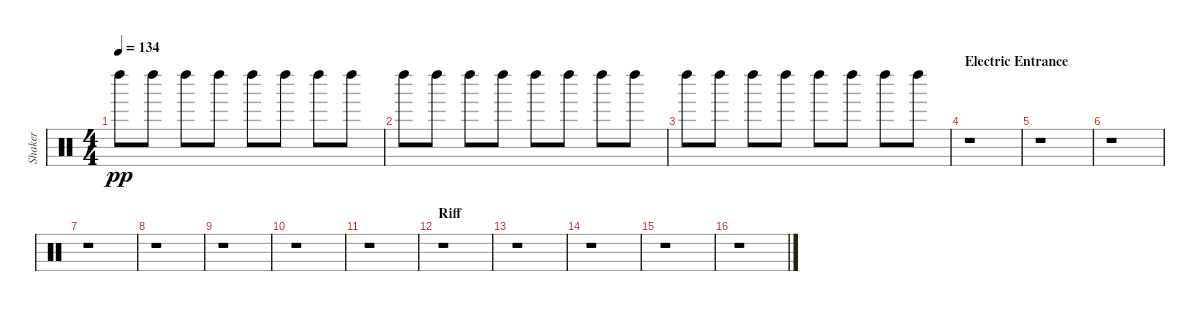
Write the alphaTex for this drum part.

\track ("Shaker" "Shaker") {instrument percussion}
\staff {score}
\articulation defaults
\ts (4 4)
\tempo 134
\clef neutral
\ks c "Left Maraca (hit)".8{dy pp} "Left Maraca (hit)".8 "Left Maraca (hit)".8 "Left Maraca (hit)".8 "Left Maraca (hit)".8 "Left Maraca (hit)".8 "Left Maraca (hit)".8 "Left Maraca (hit)".8
|
"Left Maraca (hit)".8 "Left Maraca (hit)".8 "Left Maraca (hit)".8 "Left Maraca (hit)".8 "Left Maraca (hit)".8 "Left Maraca (hit)".8 "Left Maraca (hit)".8 "Left Maraca (hit)".8 |
"Left Maraca (hit)".8 "Left Maraca (hit)".8 "Left Maraca (hit)".8 "Left Maraca (hit)".8 "Left Maraca (hit)".8 "Left Maraca (hit)".8 "Left Maraca (hit)".8 "Left Maraca (hit)".8 |
\section ("" "Electric Entrance")
r.1 |
r.1 |
r.1 |
r.1 |
r.1 |
r.1 |
r.1 |
r.1 |
\section ("" "Riff")
r.1 |
r.1 |
r.1 |
r.1 |
r.1
